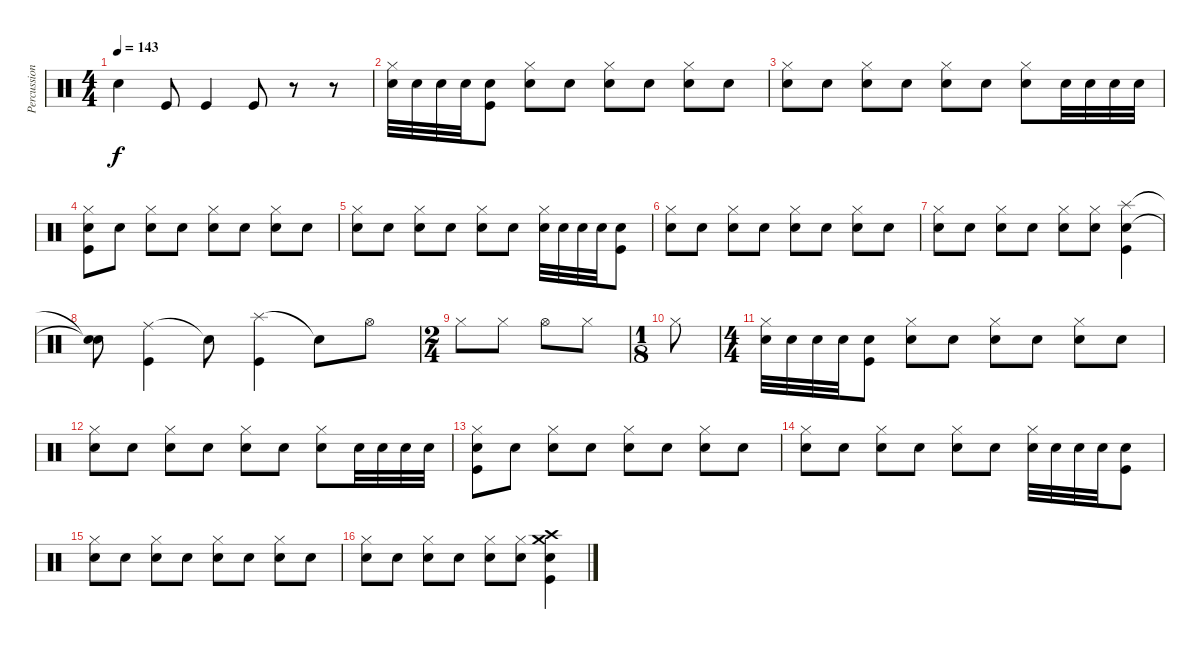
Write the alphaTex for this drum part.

\track ("Percussion" "Percussion") {instrument percussion}
\staff {score}
\articulation defaults
\ts (4 4)
\tempo 143
\clef neutral
\ks c "Electric Snare (hit)".4{dy f} "Kick (hit)".8 "Kick (hit)".4 "Kick (hit)".8
r.8 r.8 |
("Hi-Hat (closed)" "Electric Snare (hit)").32{volume 7} "Electric Snare (hit)".32 "Electric Snare (hit)".32 "Electric Snare (hit)".32 ("Electric Snare (hit)" "Kick (hit)").8{volume 10} ("Hi-Hat (closed)" "Electric Snare (hit)").8{volume 8} "Electric Snare (hit)".8 ("Hi-Hat (closed)" "Electric Snare (hit)").8 "Electric Snare (hit)".8{volume 10} ("Hi-Hat (closed)" "Electric Snare (hit)").8{volume 8} "Electric Snare (hit)".8 |
("Hi-Hat (closed)" "Electric Snare (hit)").8 "Electric Snare (hit)".8 ("Hi-Hat (closed)" "Electric Snare (hit)").8{volume 10} "Electric Snare (hit)".8{volume 8} ("Hi-Hat (closed)" "Electric Snare (hit)").8 "Electric Snare (hit)".8{volume 10} ("Hi-Hat (closed)" "Electric Snare (hit)").8{volume 8} "Electric Snare (hit)".32{volume 7} "Electric Snare (hit)".32 "Electric Snare (hit)".32 "Electric Snare (hit)".32 |
("Hi-Hat (closed)" "Electric Snare (hit)" "Kick (hit)").8{volume 10} "Electric Snare (hit)".8{volume 8} ("Hi-Hat (closed)" "Electric Snare (hit)").8 "Electric Snare (hit)".8 ("Hi-Hat (closed)" "Electric Snare (hit)").8{volume 10} "Electric Snare (hit)".8{volume 8} ("Hi-Hat (closed)" "Electric Snare (hit)").8 "Electric Snare (hit)".8 |
("Hi-Hat (closed)" "Electric Snare (hit)").8 "Electric Snare (hit)".8{volume 10} ("Hi-Hat (closed)" "Electric Snare (hit)").8{volume 8} "Electric Snare (hit)".8 ("Hi-Hat (closed)" "Electric Snare (hit)").8{volume 10} "Electric Snare (hit)".8{volume 8} ("Hi-Hat (closed)" "Electric Snare (hit)").32{volume 7} "Electric Snare (hit)".32 "Electric Snare (hit)".32 "Electric Snare (hit)".32 ("Electric Snare (hit)" "Kick (hit)").8 |
("Hi-Hat (closed)" "Electric Snare (hit)").8{volume 8} "Electric Snare (hit)".8 ("Hi-Hat (closed)" "Electric Snare (hit)").8 "Electric Snare (hit)".8{volume 10} ("Hi-Hat (closed)" "Electric Snare (hit)").8{volume 8} "Electric Snare (hit)".8 ("Hi-Hat (closed)" "Electric Snare (hit)").8 "Electric Snare (hit)".8 |
("Hi-Hat (closed)" "Electric Snare (hit)").8{volume 10} "Electric Snare (hit)".8{volume 8} ("Hi-Hat (closed)" "Electric Snare (hit)").8 "Electric Snare (hit)".8{volume 10} ("Hi-Hat (closed)" "Electric Snare (hit)").8{volume 8} ("Hi-Hat (closed)" "Electric Snare (hit)").8{volume 10} ("Splash (hit)" "Electric Snare (hit)" "Kick (hit)").4 |
("Snare (hit)"{t} "Snare (hit)"{t}).8 ("Ride (middle)" "Kick (hit)").4 "Snare (hit)"{t}.8 ("Splash (hit)" "Kick (hit)").4 "Snare (hit)"{t}.8 "Hi-Hat (open)".8 |
\ts (2 4)
"Hi-Hat (closed)".8 "Hi-Hat (closed)".8 "Hi-Hat (open)".8 "Hi-Hat (closed)".8 |
\ts (1 8)
"Hi-Hat (closed)".8 |
\ts (4 4)
("Hi-Hat (closed)" "Electric Snare (hit)").32{volume 7} "Electric Snare (hit)".32 "Electric Snare (hit)".32 "Electric Snare (hit)".32 ("Electric Snare (hit)" "Kick (hit)").8{volume 10} ("Hi-Hat (closed)" "Electric Snare (hit)").8{volume 8} "Electric Snare (hit)".8 ("Hi-Hat (closed)" "Electric Snare (hit)").8 "Electric Snare (hit)".8{volume 10} ("Hi-Hat (closed)" "Electric Snare (hit)").8{volume 8} "Electric Snare (hit)".8 |
("Hi-Hat (closed)" "Electric Snare (hit)").8 "Electric Snare (hit)".8 ("Hi-Hat (closed)" "Electric Snare (hit)").8{volume 10} "Electric Snare (hit)".8{volume 8} ("Hi-Hat (closed)" "Electric Snare (hit)").8 "Electric Snare (hit)".8{volume 10} ("Hi-Hat (closed)" "Electric Snare (hit)").8{volume 8} "Electric Snare (hit)".32{volume 7} "Electric Snare (hit)".32 "Electric Snare (hit)".32 "Electric Snare (hit)".32 |
("Hi-Hat (closed)" "Electric Snare (hit)" "Kick (hit)").8{volume 10} "Electric Snare (hit)".8{volume 8} ("Hi-Hat (closed)" "Electric Snare (hit)").8 "Electric Snare (hit)".8 ("Hi-Hat (closed)" "Electric Snare (hit)").8{volume 10} "Electric Snare (hit)".8{volume 8} ("Hi-Hat (closed)" "Electric Snare (hit)").8 "Electric Snare (hit)".8 |
("Hi-Hat (closed)" "Electric Snare (hit)").8 "Electric Snare (hit)".8{volume 10} ("Hi-Hat (closed)" "Electric Snare (hit)").8{volume 8} "Electric Snare (hit)".8 ("Hi-Hat (closed)" "Electric Snare (hit)").8{volume 10} "Electric Snare (hit)".8{volume 8} ("Hi-Hat (closed)" "Electric Snare (hit)").32{volume 7} "Electric Snare (hit)".32 "Electric Snare (hit)".32 "Electric Snare (hit)".32 ("Electric Snare (hit)" "Kick (hit)").8 |
("Hi-Hat (closed)" "Electric Snare (hit)").8{volume 8} "Electric Snare (hit)".8 ("Hi-Hat (closed)" "Electric Snare (hit)").8 "Electric Snare (hit)".8{volume 10} ("Hi-Hat (closed)" "Electric Snare (hit)").8{volume 8} "Electric Snare (hit)".8 ("Hi-Hat (closed)" "Electric Snare (hit)").8 "Electric Snare (hit)".8 |
("Hi-Hat (closed)" "Electric Snare (hit)").8{volume 10} "Electric Snare (hit)".8{volume 8} ("Hi-Hat (closed)" "Electric Snare (hit)").8 "Electric Snare (hit)".8{volume 10} ("Hi-Hat (closed)" "Electric Snare (hit)").8{volume 8} ("Hi-Hat (closed)" "Electric Snare (hit)").8{volume 10} ("Crash high (hit)" "Crash medium (hit)" "Electric Snare (hit)" "Kick (hit)").4{volume 16}
